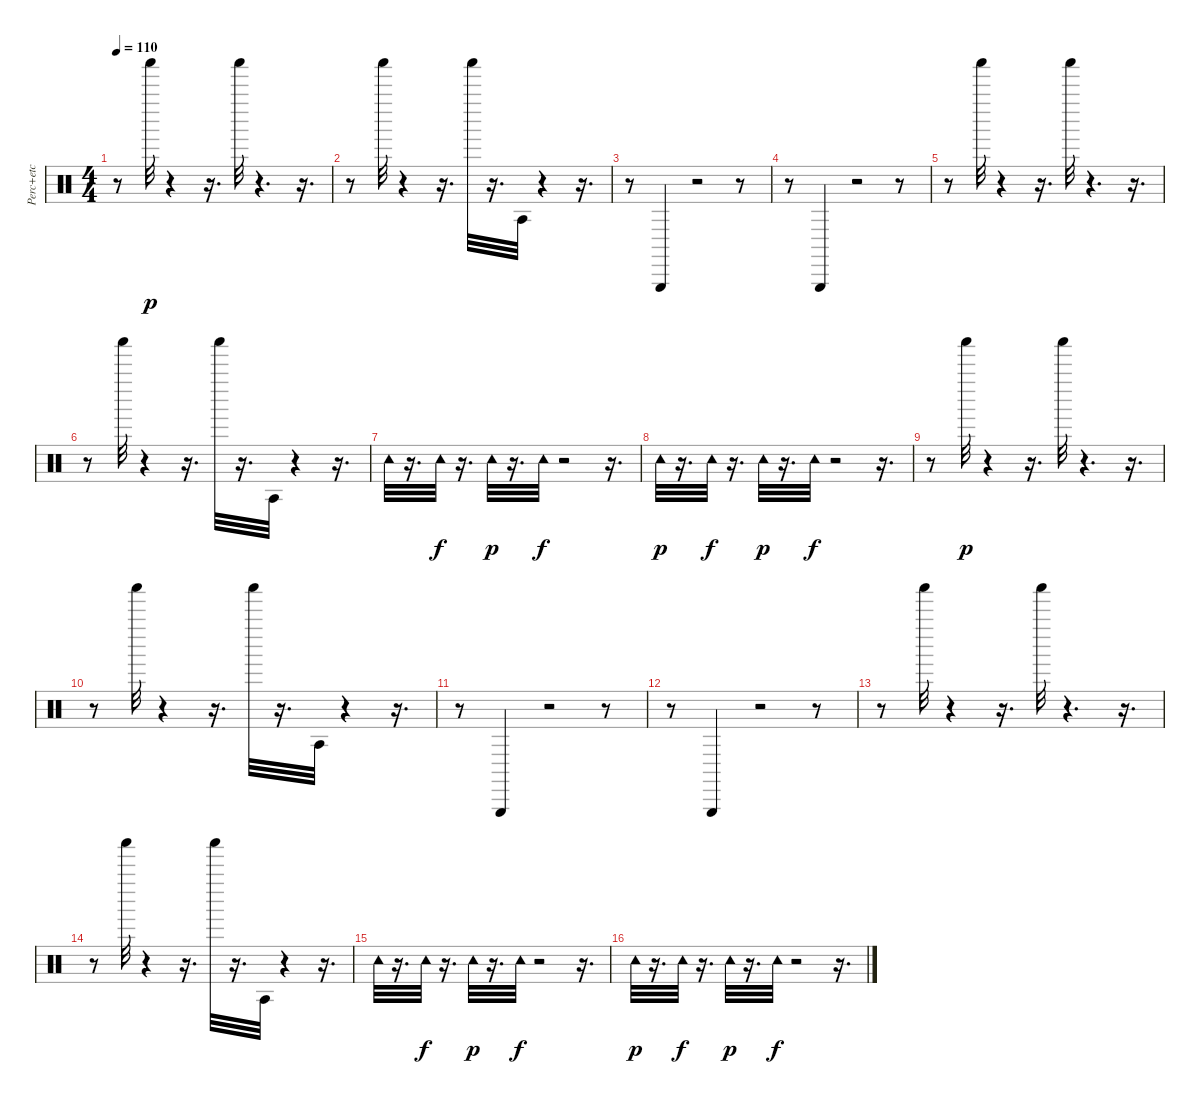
\track ("Perc+etc" "Perc+etc") {instrument percussion}
\staff {score}
\articulation defaults
\ts (4 4)
\tempo 110
\clef neutral
\ks c
r.8{dy f} "Shaker (hit)".32{dy p} r.4 r.16{d} "Shaker (hit)".32 r.4{d} r.16{d} |
r.8 "Shaker (hit)".32 r.4 r.16{d} "Shaker (hit)".32 r.16{d} "Agogo tow (hit)".32 r.4 r.16{d} |
r.8 "Triangle (hit)".4 r.2 r.8 |
r.8 "Triangle (hit)".4 r.2 r.8 |
r.8 "Shaker (hit)".32 r.4 r.16{d} "Shaker (hit)".32 r.4{d} r.16{d} |
r.8 "Shaker (hit)".32 r.4 r.16{d} "Shaker (hit)".32 r.16{d} "Agogo tow (hit)".32 r.4 r.16{d} |
"Tambourine (hit)".32 r.16{d} "Tambourine (hit)".32{dy f} r.16{d} "Tambourine (hit)".32{dy p} r.16{d} "Tambourine (hit)".32{dy f} r.2 r.16{d} |
"Tambourine (hit)".32{dy p} r.16{d} "Tambourine (hit)".32{dy f} r.16{d} "Tambourine (hit)".32{dy p} r.16{d} "Tambourine (hit)".32{dy f} r.2 r.16{d} |
r.8 "Shaker (hit)".32{dy p} r.4 r.16{d} "Shaker (hit)".32 r.4{d} r.16{d} |
r.8 "Shaker (hit)".32 r.4 r.16{d} "Shaker (hit)".32 r.16{d} "Agogo tow (hit)".32 r.4 r.16{d} |
r.8 "Triangle (hit)".4 r.2 r.8 |
r.8 "Triangle (hit)".4 r.2 r.8 |
r.8 "Shaker (hit)".32 r.4 r.16{d} "Shaker (hit)".32 r.4{d} r.16{d} |
r.8 "Shaker (hit)".32 r.4 r.16{d} "Shaker (hit)".32 r.16{d} "Agogo tow (hit)".32 r.4 r.16{d} |
"Tambourine (hit)".32 r.16{d} "Tambourine (hit)".32{dy f} r.16{d} "Tambourine (hit)".32{dy p} r.16{d} "Tambourine (hit)".32{dy f} r.2 r.16{d} |
"Tambourine (hit)".32{dy p} r.16{d} "Tambourine (hit)".32{dy f} r.16{d} "Tambourine (hit)".32{dy p} r.16{d} "Tambourine (hit)".32{dy f} r.2 r.16{d}
